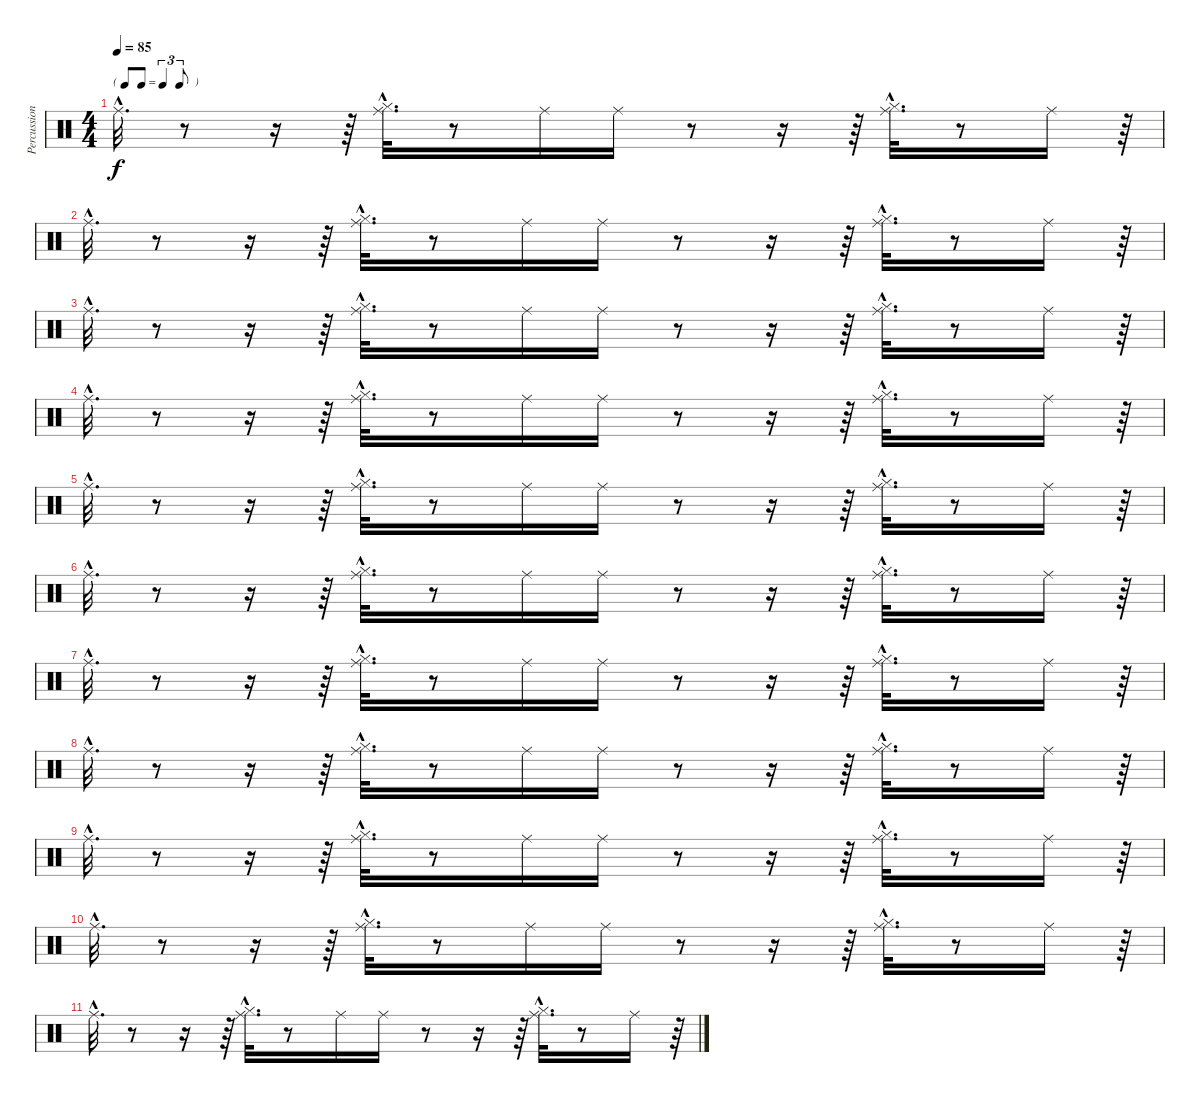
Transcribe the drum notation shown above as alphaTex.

\track ("Percussions" "Percussion") {instrument percussion}
\staff {score}
\articulation defaults
\ts (4 4)
\tf triplet8th
\tempo 85
\clef neutral
\ks c "Ride (middle)"{hac}.32{d dy f}
r.8 r.16 r.64 ("Hi-Hat (closed)"{hac} "Ride (middle)"{hac}).32{d} r.8 "Ride (middle)".16 "Ride (middle)".16 r.8 r.16 r.64 ("Hi-Hat (closed)"{hac} "Ride (middle)"{hac}).32{d} r.8 "Ride (middle)".16 r.64 |
"Ride (middle)"{hac}.32{d} r.8 r.16 r.64 ("Hi-Hat (closed)"{hac} "Ride (middle)"{hac}).32{d} r.8 "Ride (middle)".16 "Ride (middle)".16 r.8 r.16 r.64 ("Hi-Hat (closed)"{hac} "Ride (middle)"{hac}).32{d} r.8 "Ride (middle)".16 r.64 |
"Ride (middle)"{hac}.32{d} r.8 r.16 r.64 ("Hi-Hat (closed)"{hac} "Ride (middle)"{hac}).32{d} r.8 "Ride (middle)".16 "Ride (middle)".16 r.8 r.16 r.64 ("Hi-Hat (closed)"{hac} "Ride (middle)"{hac}).32{d} r.8 "Ride (middle)".16 r.64 |
"Ride (middle)"{hac}.32{d} r.8 r.16 r.64 ("Hi-Hat (closed)"{hac} "Ride (middle)"{hac}).32{d} r.8 "Ride (middle)".16 "Ride (middle)".16 r.8 r.16 r.64 ("Hi-Hat (closed)"{hac} "Ride (middle)"{hac}).32{d} r.8 "Ride (middle)".16 r.64 |
"Ride (middle)"{hac}.32{d} r.8 r.16 r.64 ("Hi-Hat (closed)"{hac} "Ride (middle)"{hac}).32{d} r.8 "Ride (middle)".16 "Ride (middle)".16 r.8 r.16 r.64 ("Hi-Hat (closed)"{hac} "Ride (middle)"{hac}).32{d} r.8 "Ride (middle)".16 r.64 |
"Ride (middle)"{hac}.32{d} r.8 r.16 r.64 ("Hi-Hat (closed)"{hac} "Ride (middle)"{hac}).32{d} r.8 "Ride (middle)".16 "Ride (middle)".16 r.8 r.16 r.64 ("Hi-Hat (closed)"{hac} "Ride (middle)"{hac}).32{d} r.8 "Ride (middle)".16 r.64 |
"Ride (middle)"{hac}.32{d} r.8 r.16 r.64 ("Hi-Hat (closed)"{hac} "Ride (middle)"{hac}).32{d} r.8 "Ride (middle)".16 "Ride (middle)".16 r.8 r.16 r.64 ("Hi-Hat (closed)"{hac} "Ride (middle)"{hac}).32{d} r.8 "Ride (middle)".16 r.64 |
"Ride (middle)"{hac}.32{d} r.8 r.16 r.64 ("Hi-Hat (closed)"{hac} "Ride (middle)"{hac}).32{d} r.8 "Ride (middle)".16 "Ride (middle)".16 r.8 r.16 r.64 ("Hi-Hat (closed)"{hac} "Ride (middle)"{hac}).32{d} r.8 "Ride (middle)".16 r.64 |
"Ride (middle)"{hac}.32{d} r.8 r.16 r.64 ("Hi-Hat (closed)"{hac} "Ride (middle)"{hac}).32{d} r.8 "Ride (middle)".16 "Ride (middle)".16 r.8 r.16 r.64 ("Hi-Hat (closed)"{hac} "Ride (middle)"{hac}).32{d} r.8 "Ride (middle)".16 r.64 |
"Ride (middle)"{hac}.32{d} r.8 r.16 r.64 ("Hi-Hat (closed)"{hac} "Ride (middle)"{hac}).32{d} r.8 "Ride (middle)".16 "Ride (middle)".16 r.8 r.16 r.64 ("Hi-Hat (closed)"{hac} "Ride (middle)"{hac}).32{d} r.8 "Ride (middle)".16 r.64 |
"Ride (middle)"{hac}.32{d} r.8 r.16 r.64 ("Hi-Hat (closed)"{hac} "Ride (middle)"{hac}).32{d} r.8 "Ride (middle)".16 "Ride (middle)".16 r.8 r.16 r.64 ("Hi-Hat (closed)"{hac} "Ride (middle)"{hac}).32{d} r.8 "Ride (middle)".16 r.64
